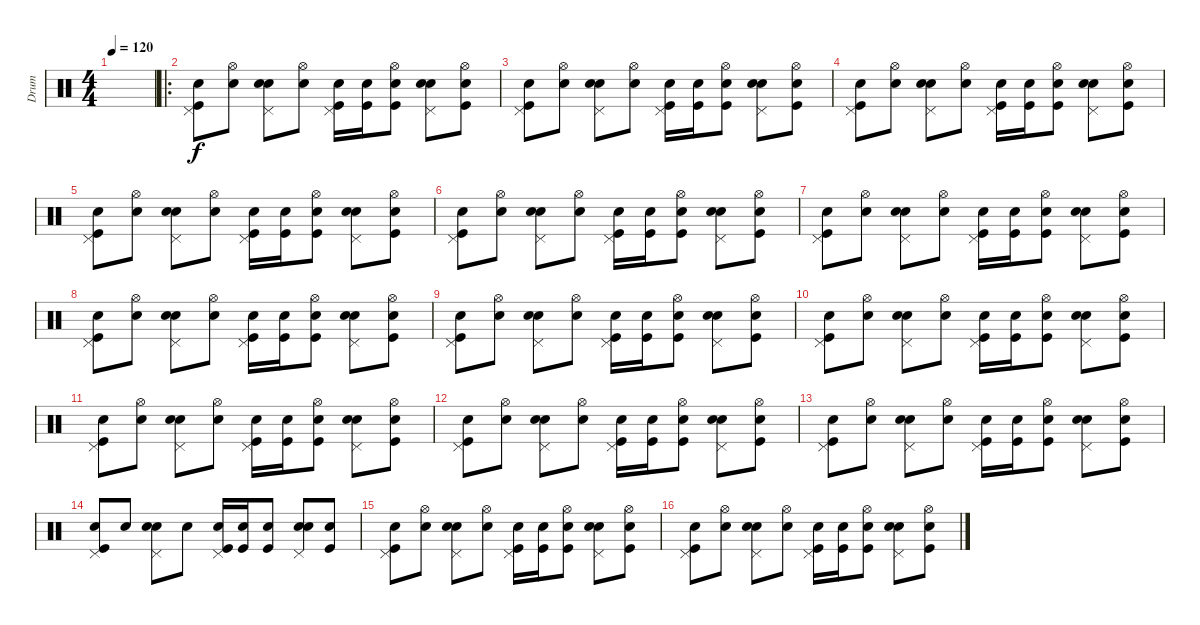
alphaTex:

\track ("Drum" "Drum") {instrument percussion}
\staff {score}
\articulation defaults
\ts (4 4)
\tempo 120
\clef neutral
\ks c
|
\ro
("Snare (hit)" "Pedal Hi-Hat (hit)" "Kick (hit)").8 ("Snare (hit)" "Hi-Hat (open)").8 ("Snare (hit)" "Pedal Hi-Hat (hit)" "Electric Snare (hit)").8 ("Snare (hit)" "Hi-Hat (open)").8 ("Snare (hit)" "Kick (hit)" "Pedal Hi-Hat (hit)").16 ("Snare (hit)" "Kick (hit)").16 ("Snare (hit)" "Kick (hit)" "Hi-Hat (open)").8 ("Snare (hit)" "Pedal Hi-Hat (hit)" "Electric Snare (hit)").8 ("Snare (hit)" "Kick (hit)" "Hi-Hat (open)").8 |
("Snare (hit)" "Pedal Hi-Hat (hit)" "Kick (hit)").8 ("Snare (hit)" "Hi-Hat (open)").8 ("Snare (hit)" "Pedal Hi-Hat (hit)" "Electric Snare (hit)").8 ("Snare (hit)" "Hi-Hat (open)").8 ("Snare (hit)" "Pedal Hi-Hat (hit)" "Kick (hit)").16 ("Snare (hit)" "Kick (hit)").16 ("Snare (hit)" "Hi-Hat (open)" "Kick (hit)").8 ("Snare (hit)" "Pedal Hi-Hat (hit)" "Electric Snare (hit)").8 ("Snare (hit)" "Hi-Hat (open)" "Kick (hit)").8 |
("Snare (hit)" "Pedal Hi-Hat (hit)" "Kick (hit)").8 ("Snare (hit)" "Hi-Hat (open)").8 ("Snare (hit)" "Pedal Hi-Hat (hit)" "Electric Snare (hit)").8 ("Snare (hit)" "Hi-Hat (open)").8 ("Snare (hit)" "Kick (hit)" "Pedal Hi-Hat (hit)").16 ("Snare (hit)" "Kick (hit)").16 ("Snare (hit)" "Kick (hit)" "Hi-Hat (open)").8 ("Snare (hit)" "Pedal Hi-Hat (hit)" "Electric Snare (hit)").8 ("Snare (hit)" "Kick (hit)" "Hi-Hat (open)").8 |
("Snare (hit)" "Pedal Hi-Hat (hit)" "Kick (hit)").8 ("Snare (hit)" "Hi-Hat (open)").8 ("Snare (hit)" "Pedal Hi-Hat (hit)" "Electric Snare (hit)").8 ("Snare (hit)" "Hi-Hat (open)").8 ("Snare (hit)" "Pedal Hi-Hat (hit)" "Kick (hit)").16 ("Snare (hit)" "Kick (hit)").16 ("Snare (hit)" "Hi-Hat (open)" "Kick (hit)").8 ("Snare (hit)" "Pedal Hi-Hat (hit)" "Electric Snare (hit)").8 ("Snare (hit)" "Hi-Hat (open)" "Kick (hit)").8 |
("Snare (hit)" "Pedal Hi-Hat (hit)" "Kick (hit)").8 ("Snare (hit)" "Hi-Hat (open)").8 ("Snare (hit)" "Pedal Hi-Hat (hit)" "Electric Snare (hit)").8 ("Snare (hit)" "Hi-Hat (open)").8 ("Snare (hit)" "Pedal Hi-Hat (hit)" "Kick (hit)").16 ("Snare (hit)" "Kick (hit)").16 ("Snare (hit)" "Hi-Hat (open)" "Kick (hit)").8 ("Snare (hit)" "Pedal Hi-Hat (hit)" "Electric Snare (hit)").8 ("Snare (hit)" "Hi-Hat (open)" "Kick (hit)").8 |
("Snare (hit)" "Pedal Hi-Hat (hit)" "Kick (hit)").8 ("Snare (hit)" "Hi-Hat (open)").8 ("Snare (hit)" "Pedal Hi-Hat (hit)" "Electric Snare (hit)").8 ("Snare (hit)" "Hi-Hat (open)").8 ("Snare (hit)" "Pedal Hi-Hat (hit)" "Kick (hit)").16 ("Snare (hit)" "Kick (hit)").16 ("Snare (hit)" "Hi-Hat (open)" "Kick (hit)").8 ("Snare (hit)" "Pedal Hi-Hat (hit)" "Electric Snare (hit)").8 ("Snare (hit)" "Hi-Hat (open)" "Kick (hit)").8 |
("Snare (hit)" "Pedal Hi-Hat (hit)" "Kick (hit)").8 ("Snare (hit)" "Hi-Hat (open)").8 ("Snare (hit)" "Pedal Hi-Hat (hit)" "Electric Snare (hit)").8 ("Snare (hit)" "Hi-Hat (open)").8 ("Snare (hit)" "Pedal Hi-Hat (hit)" "Kick (hit)").16 ("Snare (hit)" "Kick (hit)").16 ("Snare (hit)" "Hi-Hat (open)" "Kick (hit)").8 ("Snare (hit)" "Pedal Hi-Hat (hit)" "Electric Snare (hit)").8 ("Snare (hit)" "Hi-Hat (open)" "Kick (hit)").8 |
("Snare (hit)" "Pedal Hi-Hat (hit)" "Kick (hit)").8 ("Snare (hit)" "Hi-Hat (open)").8 ("Snare (hit)" "Pedal Hi-Hat (hit)" "Electric Snare (hit)").8 ("Snare (hit)" "Hi-Hat (open)").8 ("Snare (hit)" "Pedal Hi-Hat (hit)" "Kick (hit)").16 ("Snare (hit)" "Kick (hit)").16 ("Snare (hit)" "Hi-Hat (open)" "Kick (hit)").8 ("Snare (hit)" "Pedal Hi-Hat (hit)" "Electric Snare (hit)").8 ("Snare (hit)" "Hi-Hat (open)" "Kick (hit)").8 |
("Snare (hit)" "Pedal Hi-Hat (hit)" "Kick (hit)").8 ("Snare (hit)" "Hi-Hat (open)").8 ("Snare (hit)" "Pedal Hi-Hat (hit)" "Electric Snare (hit)").8 ("Snare (hit)" "Hi-Hat (open)").8 ("Snare (hit)" "Kick (hit)" "Pedal Hi-Hat (hit)").16 ("Snare (hit)" "Kick (hit)").16 ("Snare (hit)" "Kick (hit)" "Hi-Hat (open)").8 ("Snare (hit)" "Pedal Hi-Hat (hit)" "Electric Snare (hit)").8 ("Snare (hit)" "Kick (hit)" "Hi-Hat (open)").8 |
("Snare (hit)" "Pedal Hi-Hat (hit)" "Kick (hit)").8 ("Snare (hit)" "Hi-Hat (open)").8 ("Snare (hit)" "Pedal Hi-Hat (hit)" "Electric Snare (hit)").8 ("Snare (hit)" "Hi-Hat (open)").8 ("Snare (hit)" "Pedal Hi-Hat (hit)" "Kick (hit)").16 ("Snare (hit)" "Kick (hit)").16 ("Snare (hit)" "Hi-Hat (open)" "Kick (hit)").8 ("Snare (hit)" "Pedal Hi-Hat (hit)" "Electric Snare (hit)").8 ("Snare (hit)" "Hi-Hat (open)" "Kick (hit)").8 |
("Snare (hit)" "Pedal Hi-Hat (hit)" "Kick (hit)").8 ("Snare (hit)" "Hi-Hat (open)").8 ("Snare (hit)" "Pedal Hi-Hat (hit)" "Electric Snare (hit)").8 ("Snare (hit)" "Hi-Hat (open)").8 ("Snare (hit)" "Kick (hit)" "Pedal Hi-Hat (hit)").16 ("Snare (hit)" "Kick (hit)").16 ("Snare (hit)" "Kick (hit)" "Hi-Hat (open)").8 ("Snare (hit)" "Pedal Hi-Hat (hit)" "Electric Snare (hit)").8 ("Snare (hit)" "Kick (hit)" "Hi-Hat (open)").8 |
("Snare (hit)" "Pedal Hi-Hat (hit)" "Kick (hit)").8 ("Snare (hit)" "Hi-Hat (open)").8 ("Snare (hit)" "Pedal Hi-Hat (hit)" "Electric Snare (hit)").8 ("Snare (hit)" "Hi-Hat (open)").8 ("Snare (hit)" "Pedal Hi-Hat (hit)" "Kick (hit)").16 ("Snare (hit)" "Kick (hit)").16 ("Snare (hit)" "Hi-Hat (open)" "Kick (hit)").8 ("Snare (hit)" "Pedal Hi-Hat (hit)" "Electric Snare (hit)").8 ("Snare (hit)" "Hi-Hat (open)" "Kick (hit)").8 |
("Snare (hit)" "Pedal Hi-Hat (hit)" "Kick (hit)").8 "Snare (hit)".8 ("Snare (hit)" "Pedal Hi-Hat (hit)" "Electric Snare (hit)").8 "Snare (hit)".8 ("Snare (hit)" "Pedal Hi-Hat (hit)" "Kick (hit)").16 ("Snare (hit)" "Kick (hit)").16 ("Snare (hit)" "Kick (hit)").8 ("Snare (hit)" "Pedal Hi-Hat (hit)" "Electric Snare (hit)").8 ("Snare (hit)" "Kick (hit)").8 |
("Snare (hit)" "Pedal Hi-Hat (hit)" "Kick (hit)").8 ("Snare (hit)" "Hi-Hat (open)").8 ("Snare (hit)" "Pedal Hi-Hat (hit)" "Electric Snare (hit)").8 ("Snare (hit)" "Hi-Hat (open)").8 ("Snare (hit)" "Kick (hit)" "Pedal Hi-Hat (hit)").16 ("Snare (hit)" "Kick (hit)").16 ("Snare (hit)" "Kick (hit)" "Hi-Hat (open)").8 ("Snare (hit)" "Pedal Hi-Hat (hit)" "Electric Snare (hit)").8 ("Snare (hit)" "Kick (hit)" "Hi-Hat (open)").8 |
("Snare (hit)" "Pedal Hi-Hat (hit)" "Kick (hit)").8 ("Snare (hit)" "Hi-Hat (open)").8 ("Snare (hit)" "Pedal Hi-Hat (hit)" "Electric Snare (hit)").8 ("Snare (hit)" "Hi-Hat (open)").8 ("Snare (hit)" "Pedal Hi-Hat (hit)" "Kick (hit)").16 ("Snare (hit)" "Kick (hit)").16 ("Snare (hit)" "Hi-Hat (open)" "Kick (hit)").8 ("Snare (hit)" "Pedal Hi-Hat (hit)" "Electric Snare (hit)").8 ("Snare (hit)" "Hi-Hat (open)" "Kick (hit)").8
